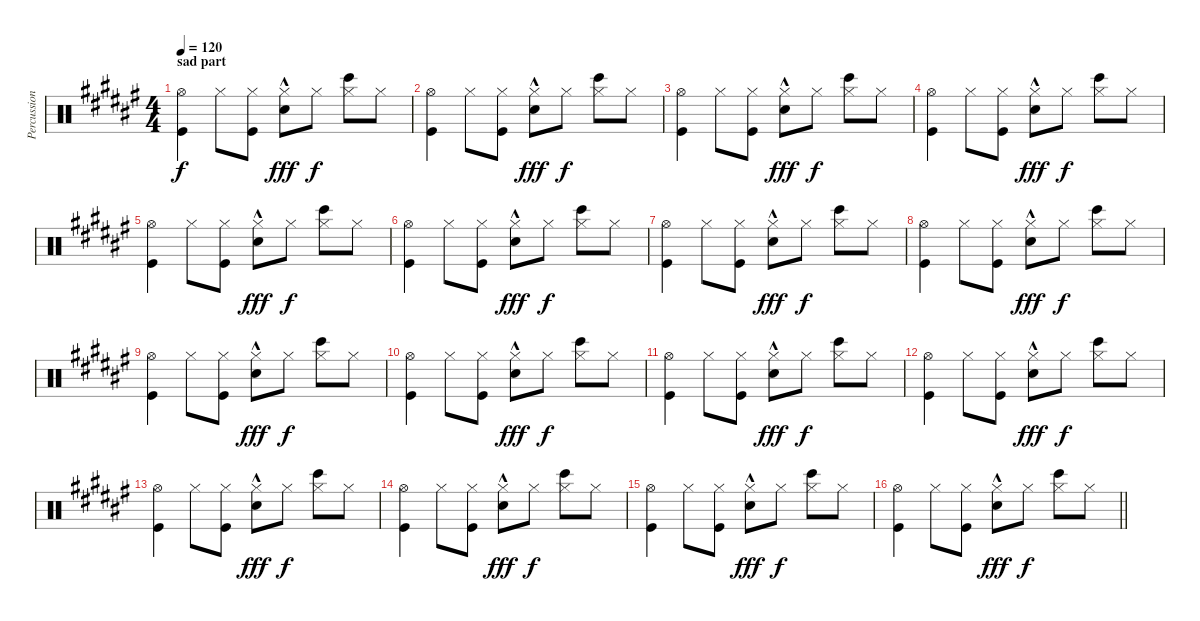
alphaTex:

\track ("Percussion" "Percussion") {instrument percussion}
\staff {score}
\articulation defaults
\ts (4 4)
\section ("" "sad part")
\tempo 120
\clef neutral
\ks f#
("Kick (hit)" "Hi-Hat (open)").4{dy f} "Hi-Hat (closed)".8 ("Kick (hit)" "Hi-Hat (closed)").8 ("Electric Snare (hit)"{hac} "Hi-Hat (closed)").8{dy fff} "Hi-Hat (closed)".8{dy f} ("Bongo High (hit)" "Hi-Hat (closed)").8 "Hi-Hat (closed)".8 |
("Kick (hit)" "Hi-Hat (open)").4 "Hi-Hat (closed)".8 ("Kick (hit)" "Hi-Hat (closed)").8 ("Electric Snare (hit)"{hac} "Hi-Hat (closed)").8{dy fff} "Hi-Hat (closed)".8{dy f} ("Bongo High (hit)" "Hi-Hat (closed)").8 "Hi-Hat (closed)".8 |
("Kick (hit)" "Hi-Hat (open)").4 "Hi-Hat (closed)".8 ("Kick (hit)" "Hi-Hat (closed)").8 ("Electric Snare (hit)"{hac} "Hi-Hat (closed)").8{dy fff} "Hi-Hat (closed)".8{dy f} ("Bongo High (hit)" "Hi-Hat (closed)").8 "Hi-Hat (closed)".8 |
("Kick (hit)" "Hi-Hat (open)").4 "Hi-Hat (closed)".8 ("Kick (hit)" "Hi-Hat (closed)").8 ("Electric Snare (hit)"{hac} "Hi-Hat (closed)").8{dy fff} "Hi-Hat (closed)".8{dy f} ("Bongo High (hit)" "Hi-Hat (closed)").8 "Hi-Hat (closed)".8 |
("Kick (hit)" "Hi-Hat (open)").4 "Hi-Hat (closed)".8 ("Kick (hit)" "Hi-Hat (closed)").8 ("Electric Snare (hit)"{hac} "Hi-Hat (closed)").8{dy fff} "Hi-Hat (closed)".8{dy f} ("Bongo High (hit)" "Hi-Hat (closed)").8 "Hi-Hat (closed)".8 |
("Kick (hit)" "Hi-Hat (open)").4 "Hi-Hat (closed)".8 ("Kick (hit)" "Hi-Hat (closed)").8 ("Electric Snare (hit)"{hac} "Hi-Hat (closed)").8{dy fff} "Hi-Hat (closed)".8{dy f} ("Bongo High (hit)" "Hi-Hat (closed)").8 "Hi-Hat (closed)".8 |
("Kick (hit)" "Hi-Hat (open)").4 "Hi-Hat (closed)".8 ("Kick (hit)" "Hi-Hat (closed)").8 ("Electric Snare (hit)"{hac} "Hi-Hat (closed)").8{dy fff} "Hi-Hat (closed)".8{dy f} ("Bongo High (hit)" "Hi-Hat (closed)").8 "Hi-Hat (closed)".8 |
("Kick (hit)" "Hi-Hat (open)").4 "Hi-Hat (closed)".8 ("Kick (hit)" "Hi-Hat (closed)").8 ("Electric Snare (hit)"{hac} "Hi-Hat (closed)").8{dy fff} "Hi-Hat (closed)".8{dy f} ("Bongo High (hit)" "Hi-Hat (closed)").8 "Hi-Hat (closed)".8 |
("Kick (hit)" "Hi-Hat (open)").4 "Hi-Hat (closed)".8 ("Kick (hit)" "Hi-Hat (closed)").8 ("Electric Snare (hit)"{hac} "Hi-Hat (closed)").8{dy fff} "Hi-Hat (closed)".8{dy f} ("Bongo High (hit)" "Hi-Hat (closed)").8 "Hi-Hat (closed)".8 |
("Kick (hit)" "Hi-Hat (open)").4 "Hi-Hat (closed)".8 ("Kick (hit)" "Hi-Hat (closed)").8 ("Electric Snare (hit)"{hac} "Hi-Hat (closed)").8{dy fff} "Hi-Hat (closed)".8{dy f} ("Bongo High (hit)" "Hi-Hat (closed)").8 "Hi-Hat (closed)".8 |
("Kick (hit)" "Hi-Hat (open)").4 "Hi-Hat (closed)".8 ("Kick (hit)" "Hi-Hat (closed)").8 ("Electric Snare (hit)"{hac} "Hi-Hat (closed)").8{dy fff} "Hi-Hat (closed)".8{dy f} ("Bongo High (hit)" "Hi-Hat (closed)").8 "Hi-Hat (closed)".8 |
("Kick (hit)" "Hi-Hat (open)").4 "Hi-Hat (closed)".8 ("Kick (hit)" "Hi-Hat (closed)").8 ("Electric Snare (hit)"{hac} "Hi-Hat (closed)").8{dy fff} "Hi-Hat (closed)".8{dy f} ("Bongo High (hit)" "Hi-Hat (closed)").8 "Hi-Hat (closed)".8 |
("Kick (hit)" "Hi-Hat (open)").4 "Hi-Hat (closed)".8 ("Kick (hit)" "Hi-Hat (closed)").8 ("Electric Snare (hit)"{hac} "Hi-Hat (closed)").8{dy fff} "Hi-Hat (closed)".8{dy f} ("Bongo High (hit)" "Hi-Hat (closed)").8 "Hi-Hat (closed)".8 |
("Kick (hit)" "Hi-Hat (open)").4 "Hi-Hat (closed)".8 ("Kick (hit)" "Hi-Hat (closed)").8 ("Electric Snare (hit)"{hac} "Hi-Hat (closed)").8{dy fff} "Hi-Hat (closed)".8{dy f} ("Bongo High (hit)" "Hi-Hat (closed)").8 "Hi-Hat (closed)".8 |
("Kick (hit)" "Hi-Hat (open)").4 "Hi-Hat (closed)".8 ("Kick (hit)" "Hi-Hat (closed)").8 ("Electric Snare (hit)"{hac} "Hi-Hat (closed)").8{dy fff} "Hi-Hat (closed)".8{dy f} ("Bongo High (hit)" "Hi-Hat (closed)").8 "Hi-Hat (closed)".8 |
\barLineRight lightlight
("Kick (hit)" "Hi-Hat (open)").4 "Hi-Hat (closed)".8 ("Kick (hit)" "Hi-Hat (closed)").8 ("Electric Snare (hit)"{hac} "Hi-Hat (closed)").8{dy fff} "Hi-Hat (closed)".8{dy f} ("Bongo High (hit)" "Hi-Hat (closed)").8 "Hi-Hat (closed)".8
